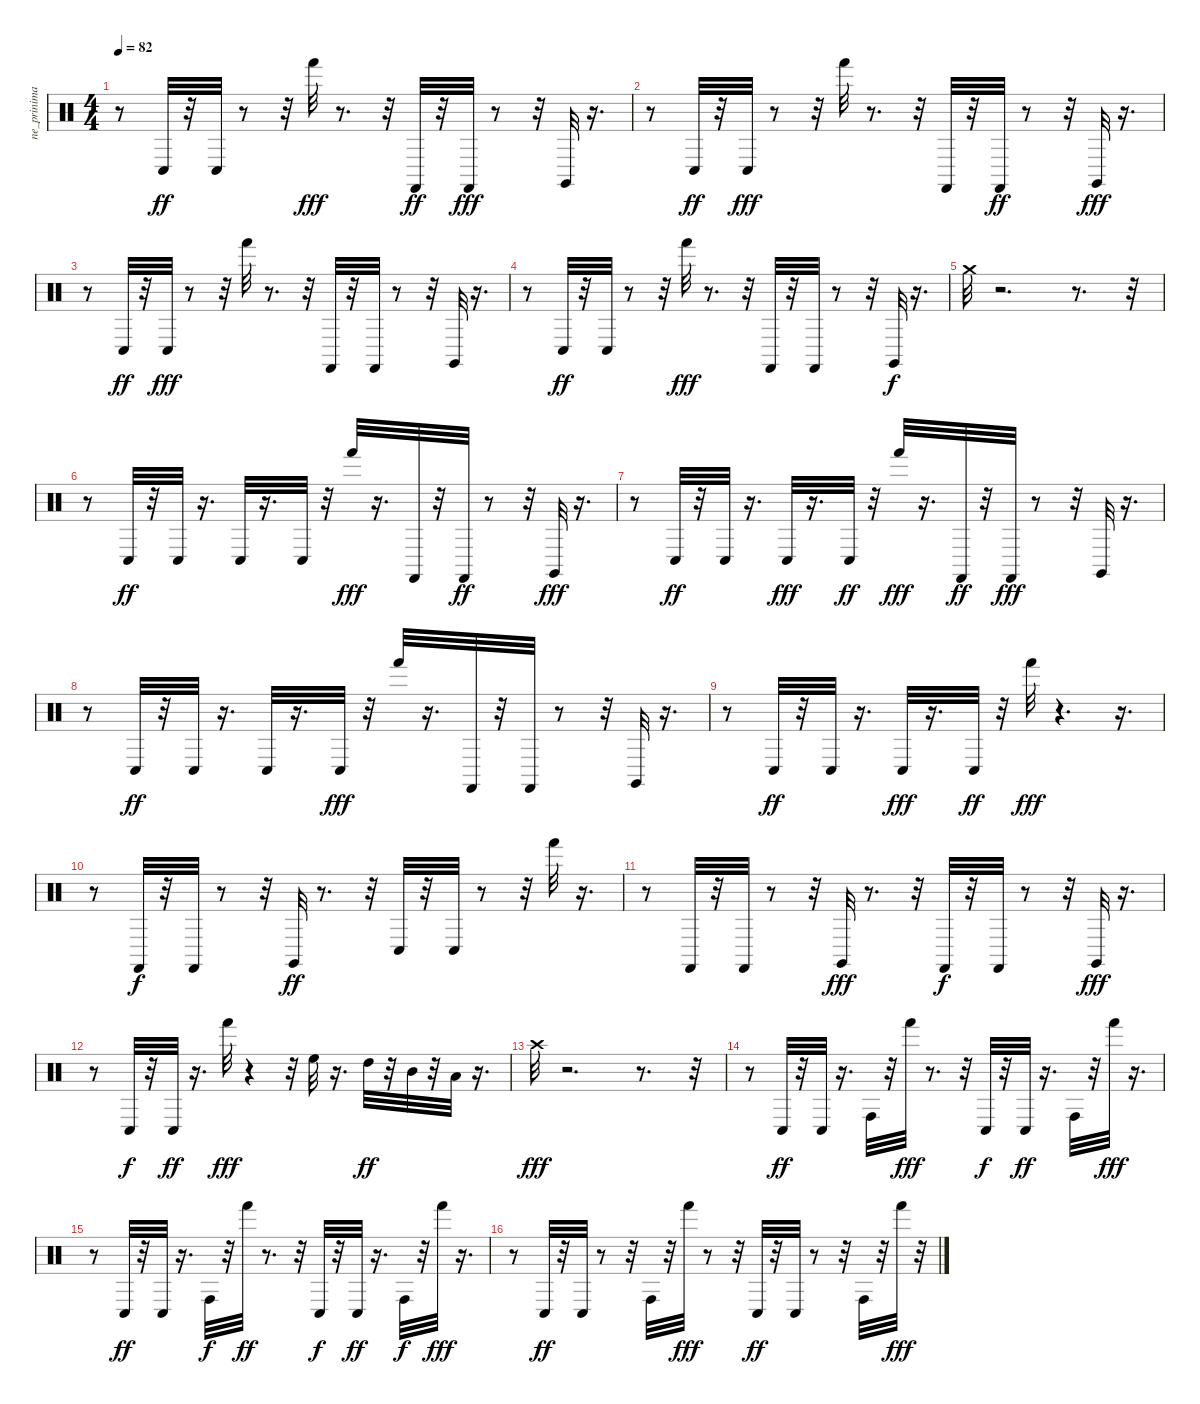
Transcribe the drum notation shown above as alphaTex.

\track ("ne_prinimai" "ne_prinima") {instrument percussion}
\staff {score}
\articulation defaults
\ts (4 4)
\tempo 82
\clef neutral
\ks c
r.8{dy fff} "Conga low (hit)".32{dy ff} r.32 "Conga low (hit)".32 r.8 r.32 "Hand (hit)".32{dy fff} r.8{d} r.32 "Castanets (hit)".32{dy ff} r.32 "Castanets (hit)".32{dy fff} r.8 r.32 "Claves (hit)".32 r.16{d} |
r.8 "Conga low (hit)".32{dy ff} r.32 "Conga low (hit)".32{dy fff} r.8 r.32 "Hand (hit)".32 r.8{d} r.32 "Castanets (hit)".32 r.32 "Castanets (hit)".32{dy ff} r.8 r.32 "Claves (hit)".32{dy fff} r.16{d} |
r.8 "Conga low (hit)".32{dy ff} r.32 "Conga low (hit)".32{dy fff} r.8 r.32 "Hand (hit)".32 r.8{d} r.32 "Castanets (hit)".32 r.32 "Castanets (hit)".32 r.8 r.32 "Claves (hit)".32 r.16{d} |
r.8 "Conga low (hit)".32{dy ff} r.32 "Conga low (hit)".32 r.8 r.32 "Hand (hit)".32{dy fff} r.8{d} r.32 "Castanets (hit)".32 r.32 "Castanets (hit)".32 r.8 r.32 "Claves (hit)".32{dy f} r.16{d} |
"Crash medium (hit)".32 r.2{d} r.8{d} r.32 |
r.8 "Conga low (hit)".32{dy ff} r.32 "Conga low (hit)".32 r.16{d} "Conga low (hit)".32 r.16{d} "Conga low (hit)".32 r.32 "Hand (hit)".32{dy fff} r.16{d} "Castanets (hit)".32 r.32 "Castanets (hit)".32{dy ff} r.8 r.32 "Claves (hit)".32{dy fff} r.16{d} |
r.8 "Conga low (hit)".32{dy ff} r.32 "Conga low (hit)".32 r.16{d} "Conga low (hit)".32{dy fff} r.16{d} "Conga low (hit)".32{dy ff} r.32 "Hand (hit)".32{dy fff} r.16{d} "Castanets (hit)".32{dy ff} r.32 "Castanets (hit)".32{dy fff} r.8 r.32 "Claves (hit)".32 r.16{d} |
r.8 "Conga low (hit)".32{dy ff} r.32 "Conga low (hit)".32 r.16{d} "Conga low (hit)".32 r.16{d} "Conga low (hit)".32{dy fff} r.32 "Hand (hit)".32 r.16{d} "Castanets (hit)".32 r.32 "Castanets (hit)".32 r.8 r.32 "Claves (hit)".32 r.16{d} |
r.8 "Conga low (hit)".32{dy ff} r.32 "Conga low (hit)".32 r.16{d} "Conga low (hit)".32{dy fff} r.16{d} "Conga low (hit)".32{dy ff} r.32 "Hand (hit)".32{dy fff} r.4{d} r.16{d} |
r.8 "Castanets (hit)".32{dy f} r.32 "Castanets (hit)".32 r.8 r.32 "Claves (hit)".32{dy ff} r.8{d} r.32 "Conga low (hit)".32 r.32 "Conga low (hit)".32 r.8 r.32 "Hand (hit)".32 r.16{d} |
r.8 "Castanets (hit)".32 r.32 "Castanets (hit)".32 r.8 r.32 "Claves (hit)".32{dy fff} r.8{d} r.32 "Castanets (hit)".32{dy f} r.32 "Castanets (hit)".32 r.8 r.32 "Claves (hit)".32{dy fff} r.16{d} |
r.8 "Conga low (hit)".32{dy f} r.32 "Conga low (hit)".32{dy ff} r.16{d} "Hand (hit)".32{dy fff} r.4 r.32 "High Floor Tom (hit)".32 r.16{d} "High Tom (hit)".32{dy ff} r.32 "Mid Tom (hit)".32 r.32 "Low Tom (hit)".32 r.16{d} |
"Crash high (hit)".32{dy fff} r.2{d} r.8{d} r.32 |
r.8 "Conga low (hit)".32{dy ff} r.32 "Conga low (hit)".32 r.16{d} "Conga high (hit)".32 r.32 "Hand (hit)".32{dy fff} r.8{d} r.32 "Conga low (hit)".32{dy f} r.32 "Conga low (hit)".32{dy ff} r.16{d} "Conga high (hit)".32 r.32 "Hand (hit)".32{dy fff} r.16{d} |
r.8 "Conga low (hit)".32{dy ff} r.32 "Conga low (hit)".32 r.16{d} "Conga high (hit)".32{dy f} r.32 "Hand (hit)".32{dy ff} r.8{d} r.32 "Conga low (hit)".32{dy f} r.32 "Conga low (hit)".32{dy ff} r.16{d} "Conga high (hit)".32{dy f} r.32 "Hand (hit)".32{dy fff} r.16{d} |
r.8 "Conga low (hit)".32{dy ff} r.32 "Conga low (hit)".32 r.8 r.32 "Conga high (hit)".32 r.32 "Hand (hit)".32{dy fff} r.8 r.32 "Conga low (hit)".32{dy ff} r.32 "Conga low (hit)".32 r.8 r.32 "Conga high (hit)".32 r.32 "Hand (hit)".32{dy fff} r.32
